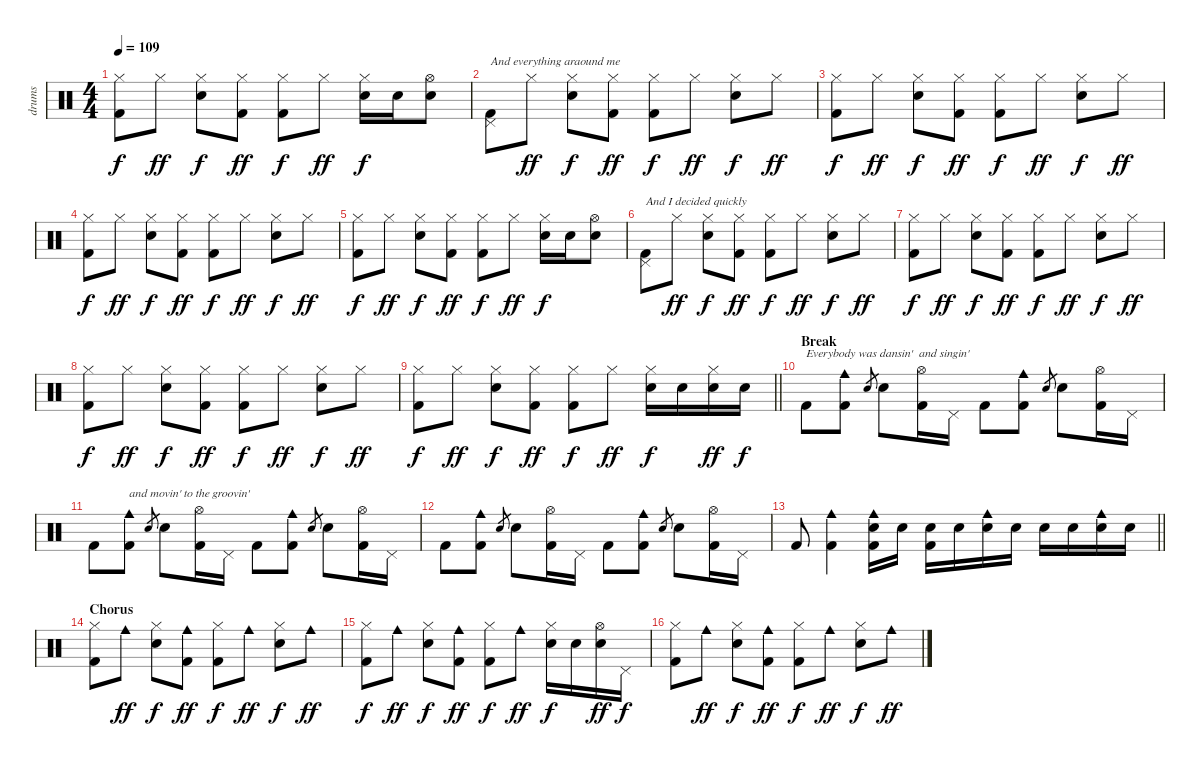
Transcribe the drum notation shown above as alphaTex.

\track ("drums" "drums") {instrument percussion}
\staff {score}
\articulation defaults
\ts (4 4)
\tempo 109
\clef neutral
\ks aminor
("Hi-Hat (closed)" "Kick (hit) 2").8{dy f} "Hi-Hat (closed)".8{dy ff} ("Hi-Hat (closed)" "Snare (hit) 2").8{dy f} ("Hi-Hat (closed)" "Kick (hit) 2").8{dy ff} ("Hi-Hat (closed)" "Kick (hit) 2").8{dy f} "Hi-Hat (closed)".8{dy ff} ("Hi-Hat (closed)" "Snare (hit) 2").16{dy f} "Snare (hit) 2".16 ("Hi-Hat (open)" "Snare (hit) 2").8 |
("Pedal Hi-Hat (hit)" "Kick (hit) 2").8{txt "And everything araound me"} "Hi-Hat (closed)".8{dy ff} ("Hi-Hat (closed)" "Snare (hit) 2").8{dy f} ("Hi-Hat (closed)" "Kick (hit) 2").8{dy ff} ("Hi-Hat (closed)" "Kick (hit) 2").8{dy f} "Hi-Hat (closed)".8{dy ff} ("Hi-Hat (closed)" "Snare (hit) 2").8{dy f} "Hi-Hat (closed)".8{dy ff} |
("Hi-Hat (closed)" "Kick (hit) 2").8{dy f} "Hi-Hat (closed)".8{dy ff} ("Hi-Hat (closed)" "Snare (hit) 2").8{dy f} ("Hi-Hat (closed)" "Kick (hit) 2").8{dy ff} ("Hi-Hat (closed)" "Kick (hit) 2").8{dy f} "Hi-Hat (closed)".8{dy ff} ("Hi-Hat (closed)" "Snare (hit) 2").8{dy f} "Hi-Hat (closed)".8{dy ff} |
("Hi-Hat (closed)" "Kick (hit) 2").8{dy f} "Hi-Hat (closed)".8{dy ff} ("Hi-Hat (closed)" "Snare (hit) 2").8{dy f} ("Hi-Hat (closed)" "Kick (hit) 2").8{dy ff} ("Hi-Hat (closed)" "Kick (hit) 2").8{dy f} "Hi-Hat (closed)".8{dy ff} ("Hi-Hat (closed)" "Snare (hit) 2").8{dy f} "Hi-Hat (closed)".8{dy ff} |
("Hi-Hat (closed)" "Kick (hit) 2").8{dy f} "Hi-Hat (closed)".8{dy ff} ("Hi-Hat (closed)" "Snare (hit) 2").8{dy f} ("Hi-Hat (closed)" "Kick (hit) 2").8{dy ff} ("Hi-Hat (closed)" "Kick (hit) 2").8{dy f} "Hi-Hat (closed)".8{dy ff} ("Hi-Hat (closed)" "Snare (hit) 2").16{dy f} "Snare (hit) 2".16 ("Hi-Hat (open)" "Snare (hit) 2").8 |
("Pedal Hi-Hat (hit)" "Kick (hit) 2").8{txt "And I decided quickly"} "Hi-Hat (closed)".8{dy ff} ("Hi-Hat (closed)" "Snare (hit) 2").8{dy f} ("Hi-Hat (closed)" "Kick (hit) 2").8{dy ff} ("Hi-Hat (closed)" "Kick (hit) 2").8{dy f} "Hi-Hat (closed)".8{dy ff} ("Hi-Hat (closed)" "Snare (hit) 2").8{dy f} "Hi-Hat (closed)".8{dy ff} |
("Hi-Hat (closed)" "Kick (hit) 2").8{dy f} "Hi-Hat (closed)".8{dy ff} ("Hi-Hat (closed)" "Snare (hit) 2").8{dy f} ("Hi-Hat (closed)" "Kick (hit) 2").8{dy ff} ("Hi-Hat (closed)" "Kick (hit) 2").8{dy f} "Hi-Hat (closed)".8{dy ff} ("Hi-Hat (closed)" "Snare (hit) 2").8{dy f} "Hi-Hat (closed)".8{dy ff} |
("Hi-Hat (closed)" "Kick (hit) 2").8{dy f} "Hi-Hat (closed)".8{dy ff} ("Hi-Hat (closed)" "Snare (hit) 2").8{dy f} ("Hi-Hat (closed)" "Kick (hit) 2").8{dy ff} ("Hi-Hat (closed)" "Kick (hit) 2").8{dy f} "Hi-Hat (closed)".8{dy ff} ("Hi-Hat (closed)" "Snare (hit) 2").8{dy f} "Hi-Hat (closed)".8{dy ff} |
\barLineRight lightlight
("Hi-Hat (closed)" "Kick (hit) 2").8{dy f} "Hi-Hat (closed)".8{dy ff} ("Hi-Hat (closed)" "Snare (hit) 2").8{dy f} ("Hi-Hat (closed)" "Kick (hit) 2").8{dy ff} ("Hi-Hat (closed)" "Kick (hit) 2").8{dy f} "Hi-Hat (closed)".8{dy ff} ("Hi-Hat (closed)" "Snare (hit) 2").16{dy f} "Snare (hit) 2".16 ("Hi-Hat (closed)" "Snare (hit) 2").16{dy ff} "Snare (hit) 2".16{dy f} |
\section ("" "Break")
"Kick (hit) 2".8{txt "Everybody was dansin'  and singin' "} ("Cowbell medium (hit)" "Kick (hit) 2").8 "Hand Clap (hit)".8{gr} "Hand Clap (hit)".8 ("Hi-Hat (open)" "Kick (hit) 2").16 "Pedal Hi-Hat (hit)".16 "Kick (hit) 2".8 ("Cowbell medium (hit)" "Kick (hit) 2").8 "Hand Clap (hit)".8{gr} "Hand Clap (hit)".8 ("Hi-Hat (open)" "Kick (hit) 2").16 "Pedal Hi-Hat (hit)".16 |
"Kick (hit) 2".8 ("Cowbell medium (hit)" "Kick (hit) 2").8{txt "and movin' to the groovin'"} "Hand Clap (hit)".8{gr} "Hand Clap (hit)".8 ("Hi-Hat (open)" "Kick (hit) 2").16 "Pedal Hi-Hat (hit)".16 "Kick (hit) 2".8 ("Cowbell medium (hit)" "Kick (hit) 2").8 "Hand Clap (hit)".8{gr} "Hand Clap (hit)".8 ("Hi-Hat (open)" "Kick (hit) 2").16 "Pedal Hi-Hat (hit)".16 |
"Kick (hit) 2".8 ("Cowbell medium (hit)" "Kick (hit) 2").8 "Hand Clap (hit)".8{gr} "Hand Clap (hit)".8 ("Hi-Hat (open)" "Kick (hit) 2").16 "Pedal Hi-Hat (hit)".16 "Kick (hit) 2".8 ("Cowbell medium (hit)" "Kick (hit) 2").8 "Hand Clap (hit)".8{gr} "Hand Clap (hit)".8 ("Hi-Hat (open)" "Kick (hit) 2").16 "Pedal Hi-Hat (hit)".16 |
\barLineRight lightlight "Kick (hit) 2".8
("Cowbell medium (hit)" "Kick (hit) 2").4 ("Cowbell medium (hit)" "Snare (hit) 2" "Kick (hit) 2").16 "Snare (hit) 2".16 ("Snare (hit) 2" "Kick (hit) 2").16 "Snare (hit) 2".16 ("Cowbell medium (hit)" "Snare (hit) 2").16 "Snare (hit) 2".16 "Snare (hit) 2".16 "Snare (hit) 2".16 ("Cowbell medium (hit)" "Snare (hit) 2").16 "Snare (hit) 2".16 |
\section ("" "Chorus")
("Hi-Hat (closed)" "Kick (hit) 2").8 "Cowbell medium (hit)".8{dy ff} ("Hi-Hat (closed)" "Snare (hit) 2").8{dy f} ("Cowbell medium (hit)" "Kick (hit) 2").8{dy ff} ("Hi-Hat (closed)" "Kick (hit) 2").8{dy f} "Cowbell medium (hit)".8{dy ff} ("Hi-Hat (closed)" "Snare (hit) 2").8{dy f} "Cowbell medium (hit)".8{dy ff} |
("Hi-Hat (closed)" "Kick (hit) 2").8{dy f} "Cowbell medium (hit)".8{dy ff} ("Hi-Hat (closed)" "Snare (hit) 2").8{dy f} ("Cowbell medium (hit)" "Kick (hit) 2").8{dy ff} ("Hi-Hat (closed)" "Kick (hit) 2").8{dy f} "Cowbell medium (hit)".8{dy ff} ("Hi-Hat (closed)" "Snare (hit) 2").16{dy f} "Snare (hit) 2".16 ("Hi-Hat (open)" "Snare (hit) 2").16{dy ff} "Pedal Hi-Hat (hit)".16{dy f} |
("Hi-Hat (closed)" "Kick (hit) 2").8 "Cowbell medium (hit)".8{dy ff} ("Hi-Hat (closed)" "Snare (hit) 2").8{dy f} ("Cowbell medium (hit)" "Kick (hit) 2").8{dy ff} ("Hi-Hat (closed)" "Kick (hit) 2").8{dy f} "Cowbell medium (hit)".8{dy ff} ("Hi-Hat (closed)" "Snare (hit) 2").8{dy f} "Cowbell medium (hit)".8{dy ff}
